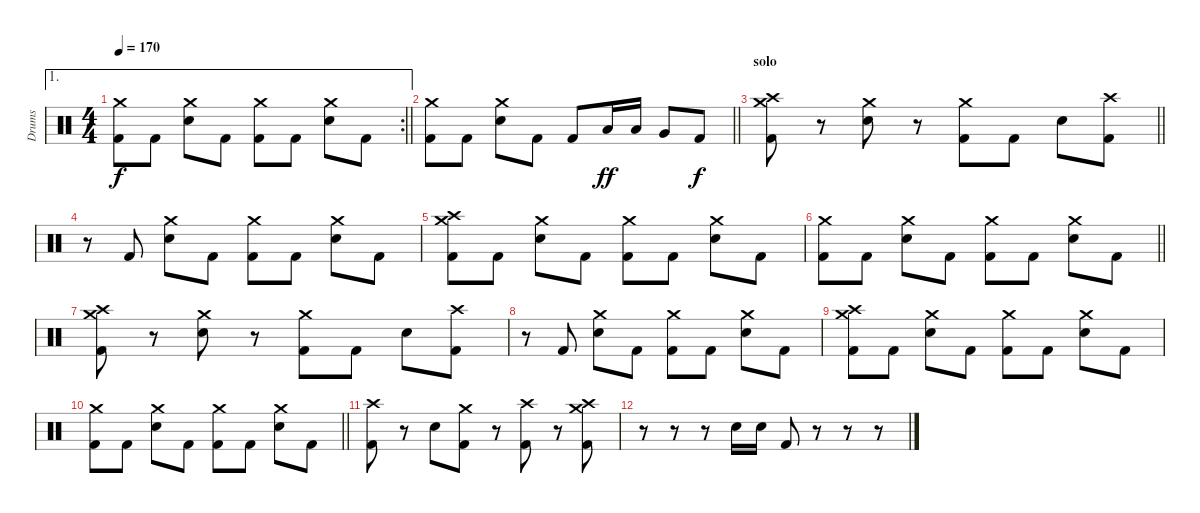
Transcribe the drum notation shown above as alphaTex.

\track ("Drums" "Drums") {instrument percussion}
\staff {score}
\articulation defaults
\ae 1
\rc 2
\ts (4 4)
\tempo 170
\clef neutral
\barLineRight lightlight
\ks c
("Crash medium (hit)" "Kick (hit) 2").8{dy f} "Kick (hit) 2".8 ("Crash medium (hit)" "Electric Snare (hit)").8 "Kick (hit) 2".8 ("Crash medium (hit)" "Kick (hit) 2").8 "Kick (hit) 2".8 ("Crash medium (hit)" "Electric Snare (hit)").8 "Kick (hit) 2".8 |
\barLineRight lightlight
("Crash medium (hit)" "Kick (hit) 2").8 "Kick (hit) 2".8 ("Crash medium (hit)" "Electric Snare (hit)").8 "Kick (hit) 2".8 "Kick (hit) 2".8 "Low Tom (hit)".16{dy ff} "Low Tom (hit)".16 "Very Low Tom (hit)".8 "Kick (hit) 2".8{dy f} |
\section ("" "solo")
\barLineRight lightlight
("Crash high (hit)" "Crash medium (hit)" "Kick (hit) 2").8 r.8 ("Crash medium (hit)" "Electric Snare (hit)").8 r.8 ("Crash medium (hit)" "Kick (hit) 2").8 "Kick (hit) 2".8 "Electric Snare (hit)".8 ("Crash high (hit)" "Kick (hit) 2").8 |
r.8 "Kick (hit) 2".8 ("Crash medium (hit)" "Electric Snare (hit)").8 "Kick (hit) 2".8 ("Crash medium (hit)" "Kick (hit) 2").8 "Kick (hit) 2".8 ("Crash medium (hit)" "Electric Snare (hit)").8 "Kick (hit) 2".8 |
("Crash high (hit)" "Crash medium (hit)" "Kick (hit) 2").8 "Kick (hit) 2".8 ("Crash medium (hit)" "Electric Snare (hit)").8 "Kick (hit) 2".8 ("Crash medium (hit)" "Kick (hit) 2").8 "Kick (hit) 2".8 ("Crash medium (hit)" "Electric Snare (hit)").8 "Kick (hit) 2".8 |
\barLineRight lightlight
("Crash medium (hit)" "Kick (hit) 2").8 "Kick (hit) 2".8 ("Crash medium (hit)" "Electric Snare (hit)").8 "Kick (hit) 2".8 ("Crash medium (hit)" "Kick (hit) 2").8 "Kick (hit) 2".8 ("Crash medium (hit)" "Electric Snare (hit)").8 "Kick (hit) 2".8 |
("Crash high (hit)" "Crash medium (hit)" "Kick (hit) 2").8 r.8 ("Crash medium (hit)" "Electric Snare (hit)").8 r.8 ("Crash medium (hit)" "Kick (hit) 2").8 "Kick (hit) 2".8 "Electric Snare (hit)".8 ("Crash high (hit)" "Kick (hit) 2").8 |
r.8 "Kick (hit) 2".8 ("Crash medium (hit)" "Electric Snare (hit)").8 "Kick (hit) 2".8 ("Crash medium (hit)" "Kick (hit) 2").8 "Kick (hit) 2".8 ("Crash medium (hit)" "Electric Snare (hit)").8 "Kick (hit) 2".8 |
("Crash high (hit)" "Crash medium (hit)" "Kick (hit) 2").8 "Kick (hit) 2".8 ("Crash medium (hit)" "Electric Snare (hit)").8 "Kick (hit) 2".8 ("Crash medium (hit)" "Kick (hit) 2").8 "Kick (hit) 2".8 ("Crash medium (hit)" "Electric Snare (hit)").8 "Kick (hit) 2".8 |
\barLineRight lightlight
("Crash medium (hit)" "Kick (hit) 2").8 "Kick (hit) 2".8 ("Crash medium (hit)" "Electric Snare (hit)").8 "Kick (hit) 2".8 ("Crash medium (hit)" "Kick (hit) 2").8 "Kick (hit) 2".8 ("Crash medium (hit)" "Electric Snare (hit)").8 "Kick (hit) 2".8 |
("Crash high (hit)" "Kick (hit) 2").8 r.8 "Electric Snare (hit)".8 ("Crash medium (hit)" "Kick (hit) 2").8 r.8 ("Crash high (hit)" "Kick (hit) 2").8 r.8 ("Crash medium (hit)" "Crash high (hit)" "Kick (hit) 2").8 |
r.8 r.8 r.8 "Electric Snare (hit)".16 "Electric Snare (hit)".16 "Kick (hit) 2".8 r.8 r.8 r.8
